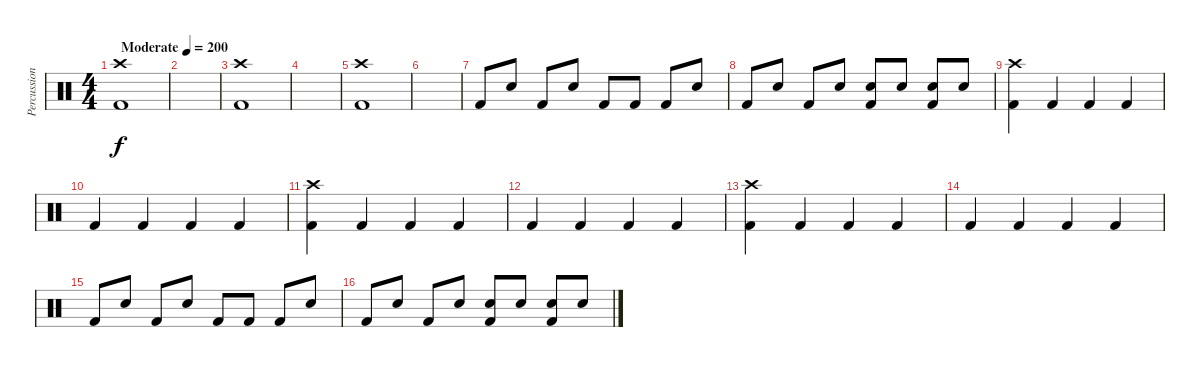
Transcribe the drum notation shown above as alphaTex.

\track ("Percussion" "Percussion") {instrument percussion}
\staff {score}
\articulation defaults
\ts (4 4)
\tempo (200 "Moderate")
\clef neutral
\ks c
("Crash high (hit)" "Kick (hit) 2").1{dy f} |
|
("Crash high (hit)" "Kick (hit) 2").1 |
|
("Crash high (hit)" "Kick (hit) 2").1 |
|
"Kick (hit) 2".8 "Electric Snare (hit)".8 "Kick (hit) 2".8 "Electric Snare (hit)".8 "Kick (hit) 2".8 "Kick (hit) 2".8 "Kick (hit) 2".8 "Electric Snare (hit)".8 |
"Kick (hit) 2".8 "Electric Snare (hit)".8 "Kick (hit) 2".8 "Electric Snare (hit)".8 ("Electric Snare (hit)" "Kick (hit) 2").8 "Electric Snare (hit)".8 ("Electric Snare (hit)" "Kick (hit) 2").8 "Electric Snare (hit)".8 |
("Crash high (hit)" "Kick (hit) 2").4 "Kick (hit) 2".4 "Kick (hit) 2".4 "Kick (hit) 2".4 |
"Kick (hit) 2".4 "Kick (hit) 2".4 "Kick (hit) 2".4 "Kick (hit) 2".4 |
("Crash high (hit)" "Kick (hit) 2").4 "Kick (hit) 2".4 "Kick (hit) 2".4 "Kick (hit) 2".4 |
"Kick (hit) 2".4 "Kick (hit) 2".4 "Kick (hit) 2".4 "Kick (hit) 2".4 |
("Crash high (hit)" "Kick (hit) 2").4 "Kick (hit) 2".4 "Kick (hit) 2".4 "Kick (hit) 2".4 |
"Kick (hit) 2".4 "Kick (hit) 2".4 "Kick (hit) 2".4 "Kick (hit) 2".4 |
"Kick (hit) 2".8 "Electric Snare (hit)".8 "Kick (hit) 2".8 "Electric Snare (hit)".8 "Kick (hit) 2".8 "Kick (hit) 2".8 "Kick (hit) 2".8 "Electric Snare (hit)".8 |
"Kick (hit) 2".8 "Electric Snare (hit)".8 "Kick (hit) 2".8 "Electric Snare (hit)".8 ("Electric Snare (hit)" "Kick (hit) 2").8 "Electric Snare (hit)".8 ("Electric Snare (hit)" "Kick (hit) 2").8 "Electric Snare (hit)".8
